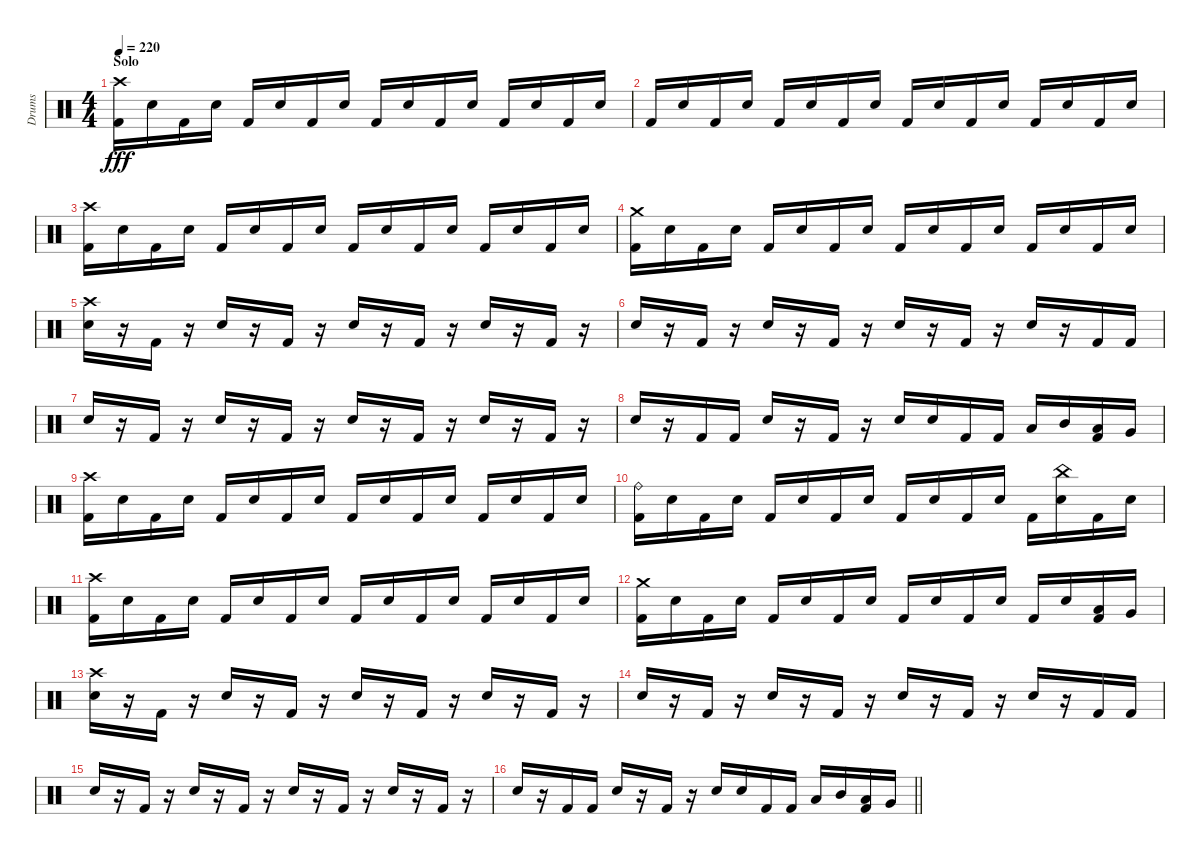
\track ("Drums" "Drums") {instrument percussion}
\staff {score}
\articulation defaults
\ts (4 4)
\section ("" "Solo")
\tempo 220
\clef neutral
\ks c
("Crash high (hit)" "Kick (hit) 2").16{dy fff} "Snare (hit) 2".16 "Kick (hit) 2".16 "Snare (hit) 2".16 "Kick (hit) 2".16 "Snare (hit) 2".16 "Kick (hit) 2".16 "Snare (hit) 2".16 "Kick (hit) 2".16 "Snare (hit) 2".16 "Kick (hit) 2".16 "Snare (hit) 2".16 "Kick (hit) 2".16 "Snare (hit) 2".16 "Kick (hit) 2".16 "Snare (hit) 2".16 |
"Kick (hit) 2".16 "Snare (hit) 2".16 "Kick (hit) 2".16 "Snare (hit) 2".16 "Kick (hit) 2".16 "Snare (hit) 2".16 "Kick (hit) 2".16 "Snare (hit) 2".16 "Kick (hit) 2".16 "Snare (hit) 2".16 "Kick (hit) 2".16 "Snare (hit) 2".16 "Kick (hit) 2".16 "Snare (hit) 2".16 "Kick (hit) 2".16 "Snare (hit) 2".16 |
("Crash high (hit)" "Kick (hit) 2").16 "Snare (hit) 2".16 "Kick (hit) 2".16 "Snare (hit) 2".16 "Kick (hit) 2".16 "Snare (hit) 2".16 "Kick (hit) 2".16 "Snare (hit) 2".16 "Kick (hit) 2".16 "Snare (hit) 2".16 "Kick (hit) 2".16 "Snare (hit) 2".16 "Kick (hit) 2".16 "Snare (hit) 2".16 "Kick (hit) 2".16 "Snare (hit) 2".16 |
("Crash medium (hit)" "Kick (hit) 2").16 "Snare (hit) 2".16 "Kick (hit) 2".16 "Snare (hit) 2".16 "Kick (hit) 2".16 "Snare (hit) 2".16 "Kick (hit) 2".16 "Snare (hit) 2".16 "Kick (hit) 2".16 "Snare (hit) 2".16 "Kick (hit) 2".16 "Snare (hit) 2".16 "Kick (hit) 2".16 "Snare (hit) 2".16 "Kick (hit) 2".16 "Snare (hit) 2".16 |
("Crash high (hit)" "Snare (hit) 2").16 r.16 "Kick (hit) 2".16 r.16 "Snare (hit) 2".16 r.16 "Kick (hit) 2".16 r.16 "Snare (hit) 2".16 r.16 "Kick (hit) 2".16 r.16 "Snare (hit) 2".16 r.16 "Kick (hit) 2".16 r.16 |
"Snare (hit) 2".16 r.16 "Kick (hit) 2".16 r.16 "Snare (hit) 2".16 r.16 "Kick (hit) 2".16 r.16 "Snare (hit) 2".16 r.16 "Kick (hit) 2".16 r.16 "Snare (hit) 2".16 r.16 "Kick (hit) 2".16 "Kick (hit) 2".16 |
"Snare (hit) 2".16 r.16 "Kick (hit) 2".16 r.16 "Snare (hit) 2".16 r.16 "Kick (hit) 2".16 r.16 "Snare (hit) 2".16 r.16 "Kick (hit) 2".16 r.16 "Snare (hit) 2".16 r.16 "Kick (hit) 2".16 r.16 |
"Snare (hit) 2".16 r.16 "Kick (hit) 2".16 "Kick (hit) 2".16 "Snare (hit) 2".16 r.16 "Kick (hit) 2".16 r.16 "Snare (hit) 2".16 "Snare (hit) 2".16 "Kick (hit) 2".16 "Kick (hit) 2".16 "Low Tom (hit)".16 "Mid Tom (hit)".16 ("Kick (hit) 2" "Low Tom (hit)").16 "Very Low Tom (hit)".16 |
("Crash high (hit)" "Kick (hit) 2").16 "Snare (hit) 2".16 "Kick (hit) 2".16 "Snare (hit) 2".16 "Kick (hit) 2".16 "Snare (hit) 2".16 "Kick (hit) 2".16 "Snare (hit) 2".16 "Kick (hit) 2".16 "Snare (hit) 2".16 "Kick (hit) 2".16 "Snare (hit) 2".16 "Kick (hit) 2".16 "Snare (hit) 2".16 "Kick (hit) 2".16 "Snare (hit) 2".16 |
("Kick (hit) 2" "Ride (bell)").16 "Snare (hit) 2".16 "Kick (hit) 2".16 "Snare (hit) 2".16 "Kick (hit) 2".16 "Snare (hit) 2".16 "Kick (hit) 2".16 "Snare (hit) 2".16 "Kick (hit) 2".16 "Snare (hit) 2".16 "Kick (hit) 2".16 "Snare (hit) 2".16 "Kick (hit) 2".16 ("China (hit)" "Snare (hit) 2").16 "Kick (hit) 2".16 "Snare (hit) 2".16 |
("Crash high (hit)" "Kick (hit) 2").16 "Snare (hit) 2".16 "Kick (hit) 2".16 "Snare (hit) 2".16 "Kick (hit) 2".16 "Snare (hit) 2".16 "Kick (hit) 2".16 "Snare (hit) 2".16 "Kick (hit) 2".16 "Snare (hit) 2".16 "Kick (hit) 2".16 "Snare (hit) 2".16 "Kick (hit) 2".16 "Snare (hit) 2".16 "Kick (hit) 2".16 "Snare (hit) 2".16 |
("Crash medium (hit)" "Kick (hit) 2").16 "Snare (hit) 2".16 "Kick (hit) 2".16 "Snare (hit) 2".16 "Kick (hit) 2".16 "Snare (hit) 2".16 "Kick (hit) 2".16 "Snare (hit) 2".16 "Kick (hit) 2".16 "Snare (hit) 2".16 "Kick (hit) 2".16 "Snare (hit) 2".16 "Kick (hit) 2".16 "Snare (hit) 2".16 ("Kick (hit) 2" "Low Tom (hit)").16 "Very Low Tom (hit)".16 |
("Crash high (hit)" "Snare (hit) 2").16 r.16 "Kick (hit) 2".16 r.16 "Snare (hit) 2".16 r.16 "Kick (hit) 2".16 r.16 "Snare (hit) 2".16 r.16 "Kick (hit) 2".16 r.16 "Snare (hit) 2".16 r.16 "Kick (hit) 2".16 r.16 |
"Snare (hit) 2".16 r.16 "Kick (hit) 2".16 r.16 "Snare (hit) 2".16 r.16 "Kick (hit) 2".16 r.16 "Snare (hit) 2".16 r.16 "Kick (hit) 2".16 r.16 "Snare (hit) 2".16 r.16 "Kick (hit) 2".16 "Kick (hit) 2".16 |
"Snare (hit) 2".16 r.16 "Kick (hit) 2".16 r.16 "Snare (hit) 2".16 r.16 "Kick (hit) 2".16 r.16 "Snare (hit) 2".16 r.16 "Kick (hit) 2".16 r.16 "Snare (hit) 2".16 r.16 "Kick (hit) 2".16 r.16 |
\barLineRight lightlight "Snare (hit) 2".16
r.16 "Kick (hit) 2".16 "Kick (hit) 2".16 "Snare (hit) 2".16 r.16 "Kick (hit) 2".16 r.16 "Snare (hit) 2".16 "Snare (hit) 2".16 "Kick (hit) 2".16 "Kick (hit) 2".16 "Low Tom (hit)".16 "Mid Tom (hit)".16 ("Kick (hit) 2" "Low Tom (hit)").16 "Very Low Tom (hit)".16
